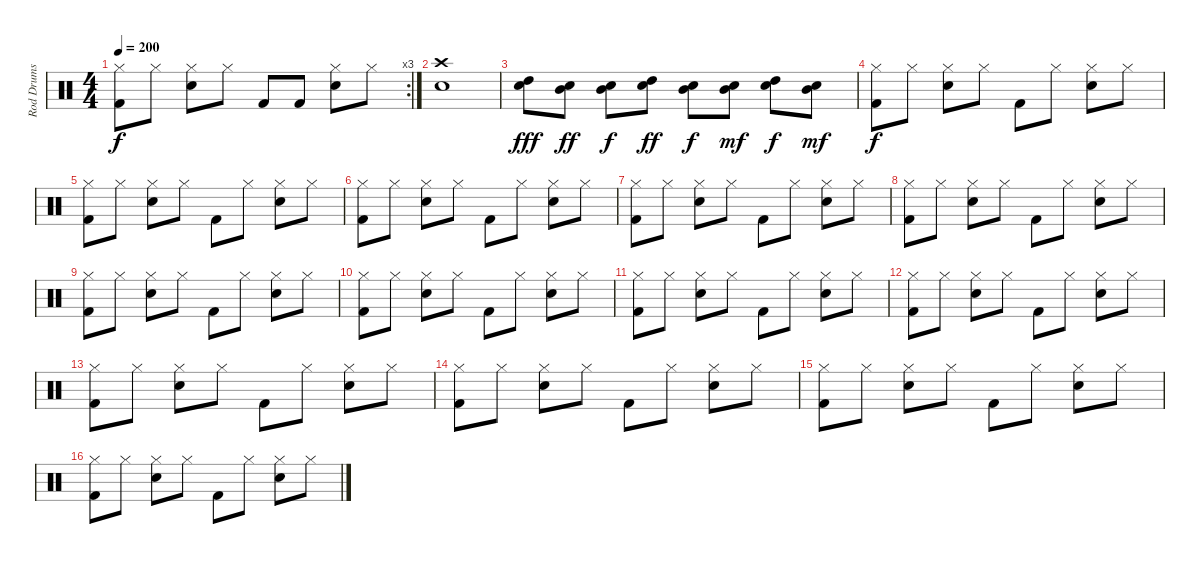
\track ("Rod Drums" "Rod Drums") {instrument percussion}
\staff {score}
\articulation defaults
\rc 3
\ts (4 4)
\tempo 200
\clef neutral
\ks c
("Kick (hit) 2" "Hi-Hat (closed)").8{dy f} "Hi-Hat (closed)".8 ("Snare (hit) 2" "Hi-Hat (closed)").8 "Hi-Hat (closed)".8 "Kick (hit) 2".8 "Kick (hit) 2".8 ("Snare (hit) 2" "Hi-Hat (closed)").8 "Hi-Hat (closed)".8 |
("Crash high (hit)" "Snare (hit) 2").1 |
("Snare (hit) 2" "High Tom (hit)").8{dy fff} ("Snare (hit) 2" "Mid Tom (hit)").8{dy ff} ("Snare (hit) 2" "Mid Tom (hit)").8{dy f} ("Snare (hit) 2" "High Tom (hit)").8{dy ff} ("Snare (hit) 2" "Mid Tom (hit)").8{dy f} ("Snare (hit) 2" "Mid Tom (hit)").8{dy mf} ("Snare (hit) 2" "High Tom (hit)").8{dy f} ("Snare (hit) 2" "Mid Tom (hit)").8{dy mf} |
("Kick (hit) 2" "Hi-Hat (closed)").8{dy f} "Hi-Hat (closed)".8 ("Snare (hit) 2" "Hi-Hat (closed)").8 "Hi-Hat (closed)".8 "Kick (hit) 2".8 "Hi-Hat (closed)".8 ("Snare (hit) 2" "Hi-Hat (closed)").8 "Hi-Hat (closed)".8 |
("Kick (hit) 2" "Hi-Hat (closed)").8 "Hi-Hat (closed)".8 ("Snare (hit) 2" "Hi-Hat (closed)").8 "Hi-Hat (closed)".8 "Kick (hit) 2".8 "Hi-Hat (closed)".8 ("Snare (hit) 2" "Hi-Hat (closed)").8 "Hi-Hat (closed)".8 |
("Kick (hit) 2" "Hi-Hat (closed)").8 "Hi-Hat (closed)".8 ("Snare (hit) 2" "Hi-Hat (closed)").8 "Hi-Hat (closed)".8 "Kick (hit) 2".8 "Hi-Hat (closed)".8 ("Snare (hit) 2" "Hi-Hat (closed)").8 "Hi-Hat (closed)".8 |
("Kick (hit) 2" "Hi-Hat (closed)").8 "Hi-Hat (closed)".8 ("Snare (hit) 2" "Hi-Hat (closed)").8 "Hi-Hat (closed)".8 "Kick (hit) 2".8 "Hi-Hat (closed)".8 ("Snare (hit) 2" "Hi-Hat (closed)").8 "Hi-Hat (closed)".8 |
("Kick (hit) 2" "Hi-Hat (closed)").8 "Hi-Hat (closed)".8 ("Snare (hit) 2" "Hi-Hat (closed)").8 "Hi-Hat (closed)".8 "Kick (hit) 2".8 "Hi-Hat (closed)".8 ("Snare (hit) 2" "Hi-Hat (closed)").8 "Hi-Hat (closed)".8 |
("Kick (hit) 2" "Hi-Hat (closed)").8 "Hi-Hat (closed)".8 ("Snare (hit) 2" "Hi-Hat (closed)").8 "Hi-Hat (closed)".8 "Kick (hit) 2".8 "Hi-Hat (closed)".8 ("Snare (hit) 2" "Hi-Hat (closed)").8 "Hi-Hat (closed)".8 |
("Kick (hit) 2" "Hi-Hat (closed)").8 "Hi-Hat (closed)".8 ("Snare (hit) 2" "Hi-Hat (closed)").8 "Hi-Hat (closed)".8 "Kick (hit) 2".8 "Hi-Hat (closed)".8 ("Snare (hit) 2" "Hi-Hat (closed)").8 "Hi-Hat (closed)".8 |
("Kick (hit) 2" "Hi-Hat (closed)").8 "Hi-Hat (closed)".8 ("Snare (hit) 2" "Hi-Hat (closed)").8 "Hi-Hat (closed)".8 "Kick (hit) 2".8 "Hi-Hat (closed)".8 ("Snare (hit) 2" "Hi-Hat (closed)").8 "Hi-Hat (closed)".8 |
("Kick (hit) 2" "Hi-Hat (closed)").8 "Hi-Hat (closed)".8 ("Snare (hit) 2" "Hi-Hat (closed)").8 "Hi-Hat (closed)".8 "Kick (hit) 2".8 "Hi-Hat (closed)".8 ("Snare (hit) 2" "Hi-Hat (closed)").8 "Hi-Hat (closed)".8 |
("Kick (hit) 2" "Hi-Hat (closed)").8 "Hi-Hat (closed)".8 ("Snare (hit) 2" "Hi-Hat (closed)").8 "Hi-Hat (closed)".8 "Kick (hit) 2".8 "Hi-Hat (closed)".8 ("Snare (hit) 2" "Hi-Hat (closed)").8 "Hi-Hat (closed)".8 |
("Kick (hit) 2" "Hi-Hat (closed)").8 "Hi-Hat (closed)".8 ("Snare (hit) 2" "Hi-Hat (closed)").8 "Hi-Hat (closed)".8 "Kick (hit) 2".8 "Hi-Hat (closed)".8 ("Snare (hit) 2" "Hi-Hat (closed)").8 "Hi-Hat (closed)".8 |
("Kick (hit) 2" "Hi-Hat (closed)").8 "Hi-Hat (closed)".8 ("Snare (hit) 2" "Hi-Hat (closed)").8 "Hi-Hat (closed)".8 "Kick (hit) 2".8 "Hi-Hat (closed)".8 ("Snare (hit) 2" "Hi-Hat (closed)").8 "Hi-Hat (closed)".8 |
("Kick (hit) 2" "Hi-Hat (closed)").8 "Hi-Hat (closed)".8 ("Snare (hit) 2" "Hi-Hat (closed)").8 "Hi-Hat (closed)".8 "Kick (hit) 2".8 "Hi-Hat (closed)".8 ("Snare (hit) 2" "Hi-Hat (closed)").8 "Hi-Hat (closed)".8
